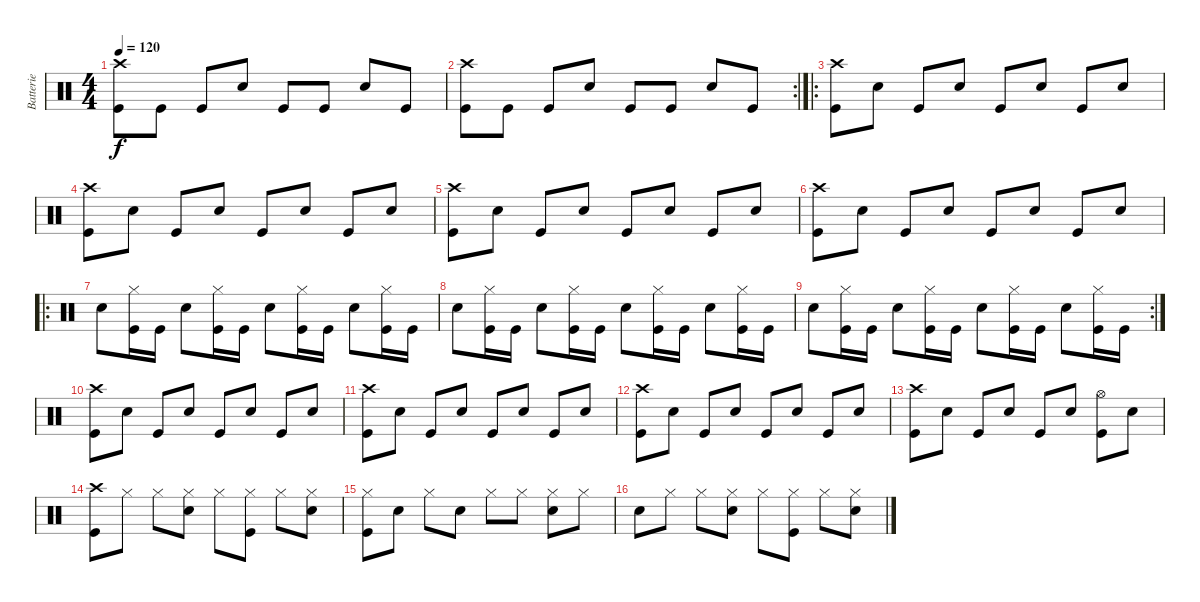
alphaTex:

\track ("Batterie" "Batterie") {instrument percussion}
\staff {score}
\articulation defaults
\ts (4 4)
\tempo 120
\clef neutral
\ks c
("Crash high (hit)" "Kick (hit)").8{dy f} "Kick (hit)".8 "Kick (hit)".8 "Electric Snare (hit)".8 "Kick (hit)".8 "Kick (hit)".8 "Electric Snare (hit)".8 "Kick (hit)".8 |
\rc 2
("Crash high (hit)" "Kick (hit)").8 "Kick (hit)".8 "Kick (hit)".8 "Electric Snare (hit)".8 "Kick (hit)".8 "Kick (hit)".8 "Electric Snare (hit)".8 "Kick (hit)".8 |
\ro
("Crash high (hit)" "Kick (hit)").8 "Electric Snare (hit)".8 "Kick (hit)".8 "Electric Snare (hit)".8 "Kick (hit)".8 "Electric Snare (hit)".8 "Kick (hit)".8 "Electric Snare (hit)".8 |
("Crash high (hit)" "Kick (hit)").8 "Electric Snare (hit)".8 "Kick (hit)".8 "Electric Snare (hit)".8 "Kick (hit)".8 "Electric Snare (hit)".8 "Kick (hit)".8 "Electric Snare (hit)".8 |
("Crash high (hit)" "Kick (hit)").8 "Electric Snare (hit)".8 "Kick (hit)".8 "Electric Snare (hit)".8 "Kick (hit)".8 "Electric Snare (hit)".8 "Kick (hit)".8 "Electric Snare (hit)".8 |
("Crash high (hit)" "Kick (hit)").8 "Electric Snare (hit)".8 "Kick (hit)".8 "Electric Snare (hit)".8 "Kick (hit)".8 "Electric Snare (hit)".8 "Kick (hit)".8 "Electric Snare (hit)".8 |
\ro "Electric Snare (hit)".8
("Hi-Hat (closed)" "Kick (hit)").16 "Kick (hit)".16 "Electric Snare (hit)".8 ("Hi-Hat (closed)" "Kick (hit)").16 "Kick (hit)".16 "Electric Snare (hit)".8 ("Hi-Hat (closed)" "Kick (hit)").16 "Kick (hit)".16 "Electric Snare (hit)".8 ("Hi-Hat (closed)" "Kick (hit)").16 "Kick (hit)".16 |
"Electric Snare (hit)".8 ("Hi-Hat (closed)" "Kick (hit)").16 "Kick (hit)".16 "Electric Snare (hit)".8 ("Hi-Hat (closed)" "Kick (hit)").16 "Kick (hit)".16 "Electric Snare (hit)".8 ("Hi-Hat (closed)" "Kick (hit)").16 "Kick (hit)".16 "Electric Snare (hit)".8 ("Hi-Hat (closed)" "Kick (hit)").16 "Kick (hit)".16 |
\rc 2 "Electric Snare (hit)".8
("Hi-Hat (closed)" "Kick (hit)").16 "Kick (hit)".16 "Electric Snare (hit)".8 ("Hi-Hat (closed)" "Kick (hit)").16 "Kick (hit)".16 "Electric Snare (hit)".8 ("Hi-Hat (closed)" "Kick (hit)").16 "Kick (hit)".16 "Electric Snare (hit)".8 ("Hi-Hat (closed)" "Kick (hit)").16 "Kick (hit)".16 |
("Crash high (hit)" "Kick (hit)").8 "Electric Snare (hit)".8 "Kick (hit)".8 "Electric Snare (hit)".8 "Kick (hit)".8 "Electric Snare (hit)".8 "Kick (hit)".8 "Electric Snare (hit)".8 |
("Crash high (hit)" "Kick (hit)").8 "Electric Snare (hit)".8 "Kick (hit)".8 "Electric Snare (hit)".8 "Kick (hit)".8 "Electric Snare (hit)".8 "Kick (hit)".8 "Electric Snare (hit)".8 |
("Crash high (hit)" "Kick (hit)").8 "Electric Snare (hit)".8 "Kick (hit)".8 "Electric Snare (hit)".8 "Kick (hit)".8 "Electric Snare (hit)".8 "Kick (hit)".8 "Electric Snare (hit)".8 |
("Crash high (hit)" "Kick (hit)").8 "Electric Snare (hit)".8 "Kick (hit)".8 "Electric Snare (hit)".8 "Kick (hit)".8 "Electric Snare (hit)".8 ("Hi-Hat (open)" "Kick (hit)").8 "Electric Snare (hit)".8 |
("Crash high (hit)" "Kick (hit)").8 "Hi-Hat (closed)".8 "Hi-Hat (closed)".8 ("Hi-Hat (closed)" "Electric Snare (hit)").8 "Hi-Hat (closed)".8 ("Hi-Hat (closed)" "Kick (hit)").8 "Hi-Hat (closed)".8 ("Hi-Hat (closed)" "Electric Snare (hit)").8 |
("Hi-Hat (closed)" "Kick (hit)").8 "Electric Snare (hit)".8 "Hi-Hat (closed)".8 "Electric Snare (hit)".8 "Hi-Hat (closed)".8 "Hi-Hat (closed)".8 ("Hi-Hat (closed)" "Electric Snare (hit)").8 "Hi-Hat (closed)".8 |
"Electric Snare (hit)".8 "Hi-Hat (closed)".8 "Hi-Hat (closed)".8 ("Hi-Hat (closed)" "Electric Snare (hit)").8 "Hi-Hat (closed)".8 ("Hi-Hat (closed)" "Kick (hit)").8 "Hi-Hat (closed)".8 ("Hi-Hat (closed)" "Electric Snare (hit)").8
